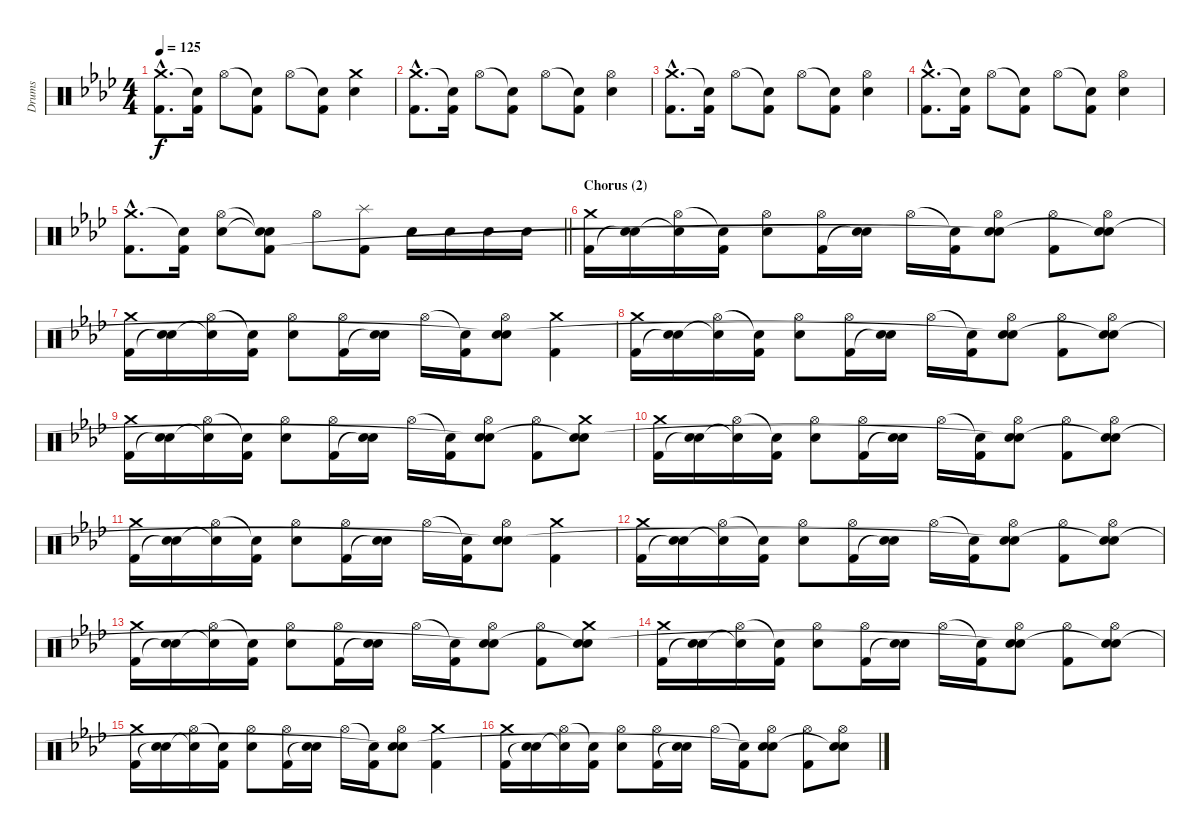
\track ("Drums" "Drums") {instrument percussion}
\staff {score}
\articulation defaults
\ts (4 4)
\tempo 125
\clef neutral
\ks ab
("Crash medium (hit)"{hac} "Kick (hit) 2"{hac}).8{d dy f} ("Snare (hit)"{t} "Kick (hit) 2").16 "Hi-Hat (open)".8 ("Snare (hit)"{t} "Kick (hit) 2").8 "Hi-Hat (open)".8 ("Snare (hit)"{t} "Kick (hit) 2").8 ("Crash medium (hit)" "Electric Snare (hit)").4 |
("Crash medium (hit)"{hac} "Kick (hit) 2"{hac}).8{d} ("Snare (hit)"{t} "Kick (hit) 2").16 "Hi-Hat (open)".8 ("Snare (hit)"{t} "Kick (hit) 2").8 "Hi-Hat (open)".8 ("Snare (hit)"{t} "Kick (hit) 2").8 ("Hi-Hat (open)" "Electric Snare (hit)").4 |
("Crash medium (hit)"{hac} "Kick (hit) 2"{hac}).8{d} ("Snare (hit)"{t} "Kick (hit) 2").16 "Hi-Hat (open)".8 ("Snare (hit)"{t} "Kick (hit) 2").8 "Hi-Hat (open)".8 ("Snare (hit)"{t} "Kick (hit) 2").8 ("Hi-Hat (open)" "Electric Snare (hit)").4 |
("Crash medium (hit)"{hac} "Kick (hit) 2"{hac}).8{d} ("Snare (hit)"{t} "Kick (hit) 2").16 "Hi-Hat (open)".8 ("Snare (hit)"{t} "Kick (hit) 2").8 "Hi-Hat (open)".8 ("Snare (hit)"{t} "Kick (hit) 2").8 ("Hi-Hat (open)" "Electric Snare (hit)").4 |
\barLineRight lightlight
("Crash medium (hit)"{hac} "Kick (hit) 2"{hac}).8{d} ("Snare (hit)"{t} "Kick (hit) 2").16 ("Hi-Hat (open)" "Electric Snare (hit)").8 ("Snare (hit)"{t} "Snare (hit)"{t} "Kick (hit) 2").8 "Hi-Hat (open)".8 ("Splash (hit)" "Kick (hit) 2").8 "Electric Snare (hit)".16 "Electric Snare (hit)".16 "Electric Snare (hit)".16 "Electric Snare (hit)".16 |
\section ("" "Chorus (2)")
("Crash medium (hit)" "Kick (hit) 2").16 ("Electric Snare (hit)" "Snare (hit)"{t}).16 ("Hi-Hat (open)" "Snare (hit)"{t}).16 ("Snare (hit)"{t} "Kick (hit) 2").16 ("Hi-Hat (open)" "Electric Snare (hit)").8 ("Hi-Hat (open)" "Kick (hit) 2").16 ("Electric Snare (hit)" "Snare (hit)"{t}).16 "Hi-Hat (open)".16 ("Snare (hit)"{t} "Kick (hit) 2").16 ("Hi-Hat (open)" "Electric Snare (hit)" "Snare (hit)"{t}).8 ("Hi-Hat (open)" "Kick (hit) 2").8 ("Hi-Hat (open)" "Electric Snare (hit)" "Snare (hit)"{t}).8 |
("Crash medium (hit)" "Kick (hit) 2").16 ("Electric Snare (hit)" "Snare (hit)"{t}).16 ("Hi-Hat (open)" "Snare (hit)"{t}).16 ("Snare (hit)"{t} "Kick (hit) 2").16 ("Hi-Hat (open)" "Electric Snare (hit)").8 ("Hi-Hat (open)" "Kick (hit) 2").16 ("Electric Snare (hit)" "Snare (hit)"{t}).16 "Hi-Hat (open)".16 ("Snare (hit)"{t} "Kick (hit) 2").16 ("Hi-Hat (open)" "Electric Snare (hit)" "Snare (hit)"{t}).8 ("Crash medium (hit)" "Kick (hit) 2").4 |
("Crash medium (hit)" "Kick (hit) 2").16 ("Electric Snare (hit)" "Snare (hit)"{t}).16 ("Hi-Hat (open)" "Snare (hit)"{t}).16 ("Snare (hit)"{t} "Kick (hit) 2").16 ("Hi-Hat (open)" "Electric Snare (hit)").8 ("Hi-Hat (open)" "Kick (hit) 2").16 ("Electric Snare (hit)" "Snare (hit)"{t}).16 "Hi-Hat (open)".16 ("Snare (hit)"{t} "Kick (hit) 2").16 ("Hi-Hat (open)" "Electric Snare (hit)" "Snare (hit)"{t}).8 ("Hi-Hat (open)" "Kick (hit) 2").8 ("Hi-Hat (open)" "Electric Snare (hit)" "Snare (hit)"{t}).8 |
("Crash medium (hit)" "Kick (hit) 2").16 ("Electric Snare (hit)" "Snare (hit)"{t}).16 ("Hi-Hat (open)" "Snare (hit)"{t}).16 ("Snare (hit)"{t} "Kick (hit) 2").16 ("Hi-Hat (open)" "Electric Snare (hit)").8 ("Hi-Hat (open)" "Kick (hit) 2").16 ("Electric Snare (hit)" "Snare (hit)"{t}).16 "Hi-Hat (open)".16 ("Snare (hit)"{t} "Kick (hit) 2").16 ("Hi-Hat (open)" "Electric Snare (hit)" "Snare (hit)"{t}).8 ("Hi-Hat (open)" "Kick (hit) 2").8 ("Crash medium (hit)" "Electric Snare (hit)" "Snare (hit)"{t}).8 |
("Crash medium (hit)" "Kick (hit) 2").16 ("Electric Snare (hit)" "Snare (hit)"{t}).16 ("Hi-Hat (open)" "Snare (hit)"{t}).16 ("Snare (hit)"{t} "Kick (hit) 2").16 ("Hi-Hat (open)" "Electric Snare (hit)").8 ("Hi-Hat (open)" "Kick (hit) 2").16 ("Electric Snare (hit)" "Snare (hit)"{t}).16 "Hi-Hat (open)".16 ("Snare (hit)"{t} "Kick (hit) 2").16 ("Hi-Hat (open)" "Electric Snare (hit)" "Snare (hit)"{t}).8 ("Hi-Hat (open)" "Kick (hit) 2").8 ("Hi-Hat (open)" "Electric Snare (hit)" "Snare (hit)"{t}).8 |
("Crash medium (hit)" "Kick (hit) 2").16 ("Electric Snare (hit)" "Snare (hit)"{t}).16 ("Hi-Hat (open)" "Snare (hit)"{t}).16 ("Snare (hit)"{t} "Kick (hit) 2").16 ("Hi-Hat (open)" "Electric Snare (hit)").8 ("Hi-Hat (open)" "Kick (hit) 2").16 ("Electric Snare (hit)" "Snare (hit)"{t}).16 "Hi-Hat (open)".16 ("Snare (hit)"{t} "Kick (hit) 2").16 ("Hi-Hat (open)" "Electric Snare (hit)" "Snare (hit)"{t}).8 ("Crash medium (hit)" "Kick (hit) 2").4 |
("Crash medium (hit)" "Kick (hit) 2").16 ("Electric Snare (hit)" "Snare (hit)"{t}).16 ("Hi-Hat (open)" "Snare (hit)"{t}).16 ("Snare (hit)"{t} "Kick (hit) 2").16 ("Hi-Hat (open)" "Electric Snare (hit)").8 ("Hi-Hat (open)" "Kick (hit) 2").16 ("Electric Snare (hit)" "Snare (hit)"{t}).16 "Hi-Hat (open)".16 ("Snare (hit)"{t} "Kick (hit) 2").16 ("Hi-Hat (open)" "Electric Snare (hit)" "Snare (hit)"{t}).8 ("Hi-Hat (open)" "Kick (hit) 2").8 ("Hi-Hat (open)" "Electric Snare (hit)" "Snare (hit)"{t}).8 |
("Crash medium (hit)" "Kick (hit) 2").16 ("Electric Snare (hit)" "Snare (hit)"{t}).16 ("Hi-Hat (open)" "Snare (hit)"{t}).16 ("Snare (hit)"{t} "Kick (hit) 2").16 ("Hi-Hat (open)" "Electric Snare (hit)").8 ("Hi-Hat (open)" "Kick (hit) 2").16 ("Electric Snare (hit)" "Snare (hit)"{t}).16 "Hi-Hat (open)".16 ("Snare (hit)"{t} "Kick (hit) 2").16 ("Hi-Hat (open)" "Electric Snare (hit)" "Snare (hit)"{t}).8 ("Hi-Hat (open)" "Kick (hit) 2").8 ("Crash medium (hit)" "Electric Snare (hit)" "Snare (hit)"{t}).8 |
("Crash medium (hit)" "Kick (hit) 2").16 ("Electric Snare (hit)" "Snare (hit)"{t}).16 ("Hi-Hat (open)" "Snare (hit)"{t}).16 ("Snare (hit)"{t} "Kick (hit) 2").16 ("Hi-Hat (open)" "Electric Snare (hit)").8 ("Hi-Hat (open)" "Kick (hit) 2").16 ("Electric Snare (hit)" "Snare (hit)"{t}).16 "Hi-Hat (open)".16 ("Snare (hit)"{t} "Kick (hit) 2").16 ("Hi-Hat (open)" "Electric Snare (hit)" "Snare (hit)"{t}).8 ("Hi-Hat (open)" "Kick (hit) 2").8 ("Hi-Hat (open)" "Electric Snare (hit)" "Snare (hit)"{t}).8 |
("Crash medium (hit)" "Kick (hit) 2").16 ("Electric Snare (hit)" "Snare (hit)"{t}).16 ("Hi-Hat (open)" "Snare (hit)"{t}).16 ("Snare (hit)"{t} "Kick (hit) 2").16 ("Hi-Hat (open)" "Electric Snare (hit)").8 ("Hi-Hat (open)" "Kick (hit) 2").16 ("Electric Snare (hit)" "Snare (hit)"{t}).16 "Hi-Hat (open)".16 ("Snare (hit)"{t} "Kick (hit) 2").16 ("Hi-Hat (open)" "Electric Snare (hit)" "Snare (hit)"{t}).8 ("Crash medium (hit)" "Kick (hit) 2").4 |
("Crash medium (hit)" "Kick (hit) 2").16 ("Electric Snare (hit)" "Snare (hit)"{t}).16 ("Hi-Hat (open)" "Snare (hit)"{t}).16 ("Snare (hit)"{t} "Kick (hit) 2").16 ("Hi-Hat (open)" "Electric Snare (hit)").8 ("Hi-Hat (open)" "Kick (hit) 2").16 ("Electric Snare (hit)" "Snare (hit)"{t}).16 "Hi-Hat (open)".16 ("Snare (hit)"{t} "Kick (hit) 2").16 ("Hi-Hat (open)" "Electric Snare (hit)" "Snare (hit)"{t}).8 ("Hi-Hat (open)" "Kick (hit) 2").8 ("Hi-Hat (open)" "Electric Snare (hit)" "Snare (hit)"{t}).8
